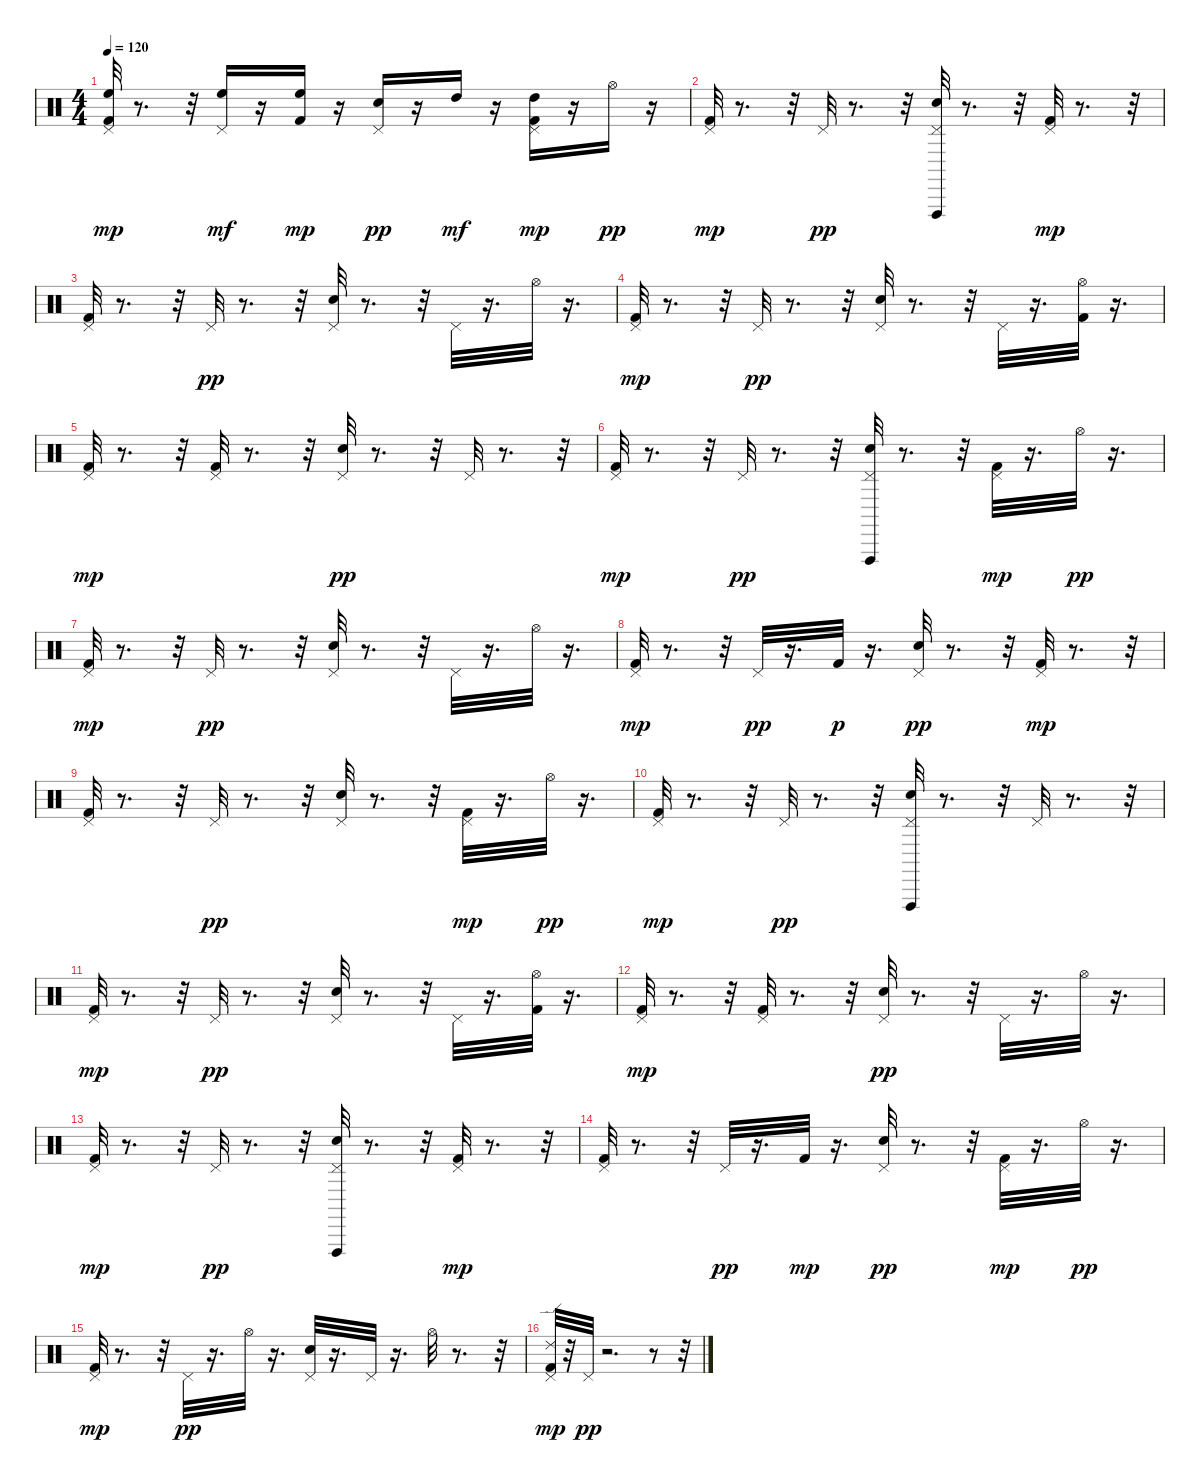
\track "" {instrument percussion}
\staff {score}
\articulation defaults
\ts (4 4)
\tempo 120
\clef neutral
\ks c
("Pedal Hi-Hat (hit)" "Kick (hit) 2" "High Floor Tom (hit)").32{dy mp} r.8{d} r.32 ("Pedal Hi-Hat (hit)" "High Floor Tom (hit)").16{dy mf} r.16 ("Kick (hit) 2" "High Floor Tom (hit)").16{dy mp} r.16 ("Pedal Hi-Hat (hit)" "Snare (hit) 2").16{dy pp} r.16 "High Tom (hit)".16{dy mf} r.16 ("Pedal Hi-Hat (hit)" "Kick (hit) 2" "High Tom (hit)").16{dy mp} r.16 "Hi-Hat (open)".16{dy pp} r.16 |
("Pedal Hi-Hat (hit)" "Kick (hit) 2").32{dy mp} r.8{d} r.32 "Pedal Hi-Hat (hit)".32{dy pp} r.8{d} r.32 ("Vibraslap (hit)" "Pedal Hi-Hat (hit)" "Snare (hit) 2").32 r.8{d} r.32 ("Pedal Hi-Hat (hit)" "Kick (hit) 2").32{dy mp} r.8{d} r.32 |
("Pedal Hi-Hat (hit)" "Kick (hit) 2").32 r.8{d} r.32 "Pedal Hi-Hat (hit)".32{dy pp} r.8{d} r.32 ("Pedal Hi-Hat (hit)" "Snare (hit) 2").32 r.8{d} r.32 "Pedal Hi-Hat (hit)".32 r.16{d} "Hi-Hat (open)".32 r.16{d} |
("Pedal Hi-Hat (hit)" "Kick (hit) 2").32{dy mp} r.8{d} r.32 "Pedal Hi-Hat (hit)".32{dy pp} r.8{d} r.32 ("Pedal Hi-Hat (hit)" "Snare (hit) 2").32 r.8{d} r.32 "Pedal Hi-Hat (hit)".32 r.16{d} ("Kick (hit) 2" "Hi-Hat (open)").32 r.16{d} |
("Pedal Hi-Hat (hit)" "Kick (hit) 2").32{dy mp} r.8{d} r.32 ("Pedal Hi-Hat (hit)" "Kick (hit) 2").32 r.8{d} r.32 ("Pedal Hi-Hat (hit)" "Snare (hit) 2").32{dy pp} r.8{d} r.32 "Pedal Hi-Hat (hit)".32 r.8{d} r.32 |
("Pedal Hi-Hat (hit)" "Kick (hit) 2").32{dy mp} r.8{d} r.32 "Pedal Hi-Hat (hit)".32{dy pp} r.8{d} r.32 ("Vibraslap (hit)" "Pedal Hi-Hat (hit)" "Snare (hit) 2").32 r.8{d} r.32 ("Pedal Hi-Hat (hit)" "Kick (hit) 2").32{dy mp} r.16{d} "Hi-Hat (open)".32{dy pp} r.16{d} |
("Pedal Hi-Hat (hit)" "Kick (hit) 2").32{dy mp} r.8{d} r.32 "Pedal Hi-Hat (hit)".32{dy pp} r.8{d} r.32 ("Pedal Hi-Hat (hit)" "Snare (hit) 2").32 r.8{d} r.32 "Pedal Hi-Hat (hit)".32 r.16{d} "Hi-Hat (open)".32 r.16{d} |
("Pedal Hi-Hat (hit)" "Kick (hit) 2").32{dy mp} r.8{d} r.32 "Pedal Hi-Hat (hit)".32{dy pp} r.16{d} "Kick (hit) 2".32{dy p} r.16{d} ("Pedal Hi-Hat (hit)" "Snare (hit) 2").32{dy pp} r.8{d} r.32 ("Pedal Hi-Hat (hit)" "Kick (hit) 2").32{dy mp} r.8{d} r.32 |
("Pedal Hi-Hat (hit)" "Kick (hit) 2").32 r.8{d} r.32 "Pedal Hi-Hat (hit)".32{dy pp} r.8{d} r.32 ("Pedal Hi-Hat (hit)" "Snare (hit) 2").32 r.8{d} r.32 ("Pedal Hi-Hat (hit)" "Kick (hit) 2").32{dy mp} r.16{d} "Hi-Hat (open)".32{dy pp} r.16{d} |
("Pedal Hi-Hat (hit)" "Kick (hit) 2").32{dy mp} r.8{d} r.32 "Pedal Hi-Hat (hit)".32{dy pp} r.8{d} r.32 ("Vibraslap (hit)" "Pedal Hi-Hat (hit)" "Snare (hit) 2").32 r.8{d} r.32 "Pedal Hi-Hat (hit)".32 r.8{d} r.32 |
("Pedal Hi-Hat (hit)" "Kick (hit) 2").32{dy mp} r.8{d} r.32 "Pedal Hi-Hat (hit)".32{dy pp} r.8{d} r.32 ("Pedal Hi-Hat (hit)" "Snare (hit) 2").32 r.8{d} r.32 "Pedal Hi-Hat (hit)".32 r.16{d} ("Kick (hit) 2" "Hi-Hat (open)").32 r.16{d} |
("Pedal Hi-Hat (hit)" "Kick (hit) 2").32{dy mp} r.8{d} r.32 ("Pedal Hi-Hat (hit)" "Kick (hit) 2").32 r.8{d} r.32 ("Pedal Hi-Hat (hit)" "Snare (hit) 2").32{dy pp} r.8{d} r.32 "Pedal Hi-Hat (hit)".32 r.16{d} "Hi-Hat (open)".32 r.16{d} |
("Pedal Hi-Hat (hit)" "Kick (hit) 2").32{dy mp} r.8{d} r.32 "Pedal Hi-Hat (hit)".32{dy pp} r.8{d} r.32 ("Vibraslap (hit)" "Pedal Hi-Hat (hit)" "Snare (hit) 2").32 r.8{d} r.32 ("Pedal Hi-Hat (hit)" "Kick (hit) 2").32{dy mp} r.8{d} r.32 |
("Pedal Hi-Hat (hit)" "Kick (hit) 2").32 r.8{d} r.32 "Pedal Hi-Hat (hit)".32{dy pp} r.16{d} "Kick (hit) 2".32{dy mp} r.16{d} ("Pedal Hi-Hat (hit)" "Snare (hit) 2").32{dy pp} r.8{d} r.32 ("Pedal Hi-Hat (hit)" "Kick (hit) 2").32{dy mp} r.16{d} "Hi-Hat (open)".32{dy pp} r.16{d} |
("Pedal Hi-Hat (hit)" "Kick (hit) 2").32{dy mp} r.8{d} r.32 "Pedal Hi-Hat (hit)".32{dy pp} r.16{d} "Hi-Hat (open)".32 r.16{d} ("Pedal Hi-Hat (hit)" "Snare (hit) 2").32 r.16{d} "Pedal Hi-Hat (hit)".32 r.16{d} "Hi-Hat (open)".32 r.8{d} r.32 |
("Pedal Hi-Hat (hit)" "Kick (hit) 2" "Ride (edge) 2").32{dy mp} r.32 "Pedal Hi-Hat (hit)".32{dy pp} r.2{d} r.8 r.32
